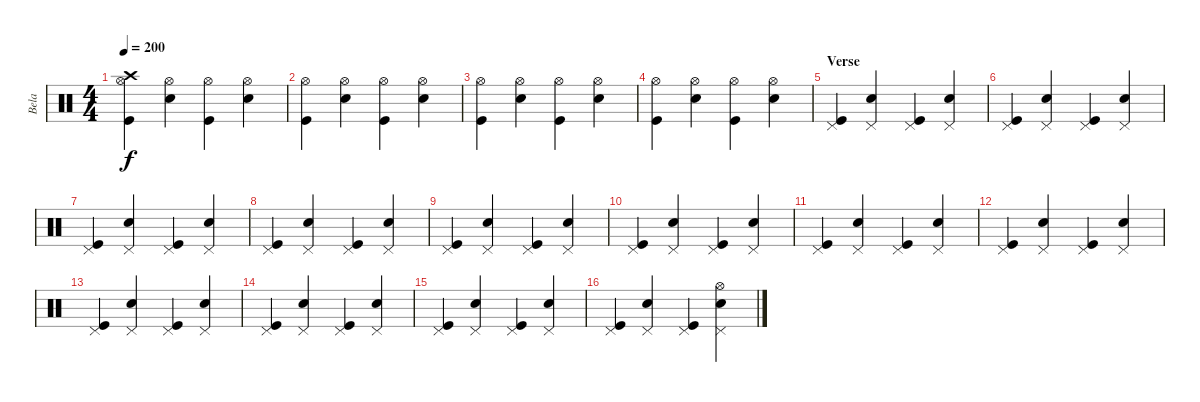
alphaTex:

\track ("Bela" "Bela") {instrument percussion}
\staff {score}
\articulation defaults
\ts (4 4)
\tempo 200
\clef neutral
\ks c
("Hi-Hat (open)" "Crash high (hit)" "Kick (hit)").4{dy f} ("Hi-Hat (open)" "Electric Snare (hit)").4 ("Hi-Hat (open)" "Kick (hit)").4 ("Hi-Hat (open)" "Electric Snare (hit)").4 |
("Hi-Hat (open)" "Kick (hit)").4 ("Hi-Hat (open)" "Electric Snare (hit)").4 ("Hi-Hat (open)" "Kick (hit)").4 ("Hi-Hat (open)" "Electric Snare (hit)").4 |
("Hi-Hat (open)" "Kick (hit)").4 ("Hi-Hat (open)" "Electric Snare (hit)").4 ("Hi-Hat (open)" "Kick (hit)").4 ("Hi-Hat (open)" "Electric Snare (hit)").4 |
("Hi-Hat (open)" "Kick (hit)").4 ("Hi-Hat (open)" "Electric Snare (hit)").4 ("Hi-Hat (open)" "Kick (hit)").4 ("Hi-Hat (open)" "Electric Snare (hit)").4 |
\section ("" "Verse")
("Pedal Hi-Hat (hit)" "Kick (hit)").4 ("Pedal Hi-Hat (hit)" "Electric Snare (hit)").4 ("Pedal Hi-Hat (hit)" "Kick (hit)").4 ("Pedal Hi-Hat (hit)" "Electric Snare (hit)").4 |
("Pedal Hi-Hat (hit)" "Kick (hit)").4 ("Pedal Hi-Hat (hit)" "Electric Snare (hit)").4 ("Pedal Hi-Hat (hit)" "Kick (hit)").4 ("Pedal Hi-Hat (hit)" "Electric Snare (hit)").4 |
("Pedal Hi-Hat (hit)" "Kick (hit)").4 ("Pedal Hi-Hat (hit)" "Electric Snare (hit)").4 ("Pedal Hi-Hat (hit)" "Kick (hit)").4 ("Pedal Hi-Hat (hit)" "Electric Snare (hit)").4 |
("Pedal Hi-Hat (hit)" "Kick (hit)").4 ("Pedal Hi-Hat (hit)" "Electric Snare (hit)").4 ("Pedal Hi-Hat (hit)" "Kick (hit)").4 ("Pedal Hi-Hat (hit)" "Electric Snare (hit)").4 |
("Pedal Hi-Hat (hit)" "Kick (hit)").4 ("Pedal Hi-Hat (hit)" "Electric Snare (hit)").4 ("Pedal Hi-Hat (hit)" "Kick (hit)").4 ("Pedal Hi-Hat (hit)" "Electric Snare (hit)").4 |
("Pedal Hi-Hat (hit)" "Kick (hit)").4 ("Pedal Hi-Hat (hit)" "Electric Snare (hit)").4 ("Pedal Hi-Hat (hit)" "Kick (hit)").4 ("Pedal Hi-Hat (hit)" "Electric Snare (hit)").4 |
("Pedal Hi-Hat (hit)" "Kick (hit)").4 ("Pedal Hi-Hat (hit)" "Electric Snare (hit)").4 ("Pedal Hi-Hat (hit)" "Kick (hit)").4 ("Pedal Hi-Hat (hit)" "Electric Snare (hit)").4 |
("Pedal Hi-Hat (hit)" "Kick (hit)").4 ("Pedal Hi-Hat (hit)" "Electric Snare (hit)").4 ("Pedal Hi-Hat (hit)" "Kick (hit)").4 ("Pedal Hi-Hat (hit)" "Electric Snare (hit)").4 |
("Pedal Hi-Hat (hit)" "Kick (hit)").4 ("Pedal Hi-Hat (hit)" "Electric Snare (hit)").4 ("Pedal Hi-Hat (hit)" "Kick (hit)").4 ("Pedal Hi-Hat (hit)" "Electric Snare (hit)").4 |
("Pedal Hi-Hat (hit)" "Kick (hit)").4 ("Pedal Hi-Hat (hit)" "Electric Snare (hit)").4 ("Pedal Hi-Hat (hit)" "Kick (hit)").4 ("Pedal Hi-Hat (hit)" "Electric Snare (hit)").4 |
("Pedal Hi-Hat (hit)" "Kick (hit)").4 ("Pedal Hi-Hat (hit)" "Electric Snare (hit)").4 ("Pedal Hi-Hat (hit)" "Kick (hit)").4 ("Pedal Hi-Hat (hit)" "Electric Snare (hit)").4 |
("Pedal Hi-Hat (hit)" "Kick (hit)").4 ("Pedal Hi-Hat (hit)" "Electric Snare (hit)").4 ("Pedal Hi-Hat (hit)" "Kick (hit)").4 ("Pedal Hi-Hat (hit)" "Hi-Hat (open)" "Electric Snare (hit)").4
